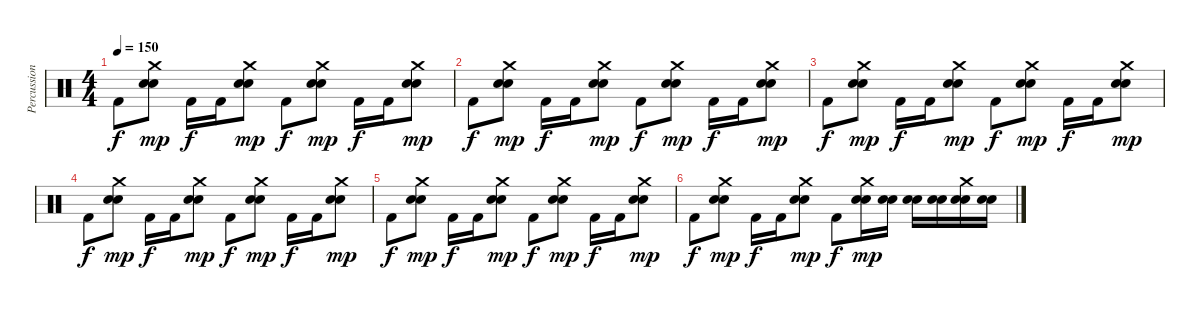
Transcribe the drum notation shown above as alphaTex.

\track ("Percussion" "Percussion") {instrument percussion}
\staff {score}
\articulation defaults
\ts (4 4)
\tempo 150
\clef neutral
\ks c "Kick (hit) 2".8{dy f}
("Crash medium (hit)" "Electric Snare (hit)" "Snare (hit) 2").8{dy mp} "Kick (hit) 2".16{dy f} "Kick (hit) 2".16 ("Crash medium (hit)" "Electric Snare (hit)" "Snare (hit) 2").8{dy mp} "Kick (hit) 2".8{dy f} ("Crash medium (hit)" "Electric Snare (hit)" "Snare (hit) 2").8{dy mp} "Kick (hit) 2".16{dy f} "Kick (hit) 2".16 ("Crash medium (hit)" "Electric Snare (hit)" "Snare (hit) 2").8{dy mp} |
"Kick (hit) 2".8{dy f} ("Crash medium (hit)" "Electric Snare (hit)" "Snare (hit) 2").8{dy mp} "Kick (hit) 2".16{dy f} "Kick (hit) 2".16 ("Crash medium (hit)" "Electric Snare (hit)" "Snare (hit) 2").8{dy mp} "Kick (hit) 2".8{dy f} ("Crash medium (hit)" "Electric Snare (hit)" "Snare (hit) 2").8{dy mp} "Kick (hit) 2".16{dy f} "Kick (hit) 2".16 ("Crash medium (hit)" "Electric Snare (hit)" "Snare (hit) 2").8{dy mp} |
"Kick (hit) 2".8{dy f} ("Crash medium (hit)" "Electric Snare (hit)" "Snare (hit) 2").8{dy mp} "Kick (hit) 2".16{dy f} "Kick (hit) 2".16 ("Crash medium (hit)" "Electric Snare (hit)" "Snare (hit) 2").8{dy mp} "Kick (hit) 2".8{dy f} ("Crash medium (hit)" "Electric Snare (hit)" "Snare (hit) 2").8{dy mp} "Kick (hit) 2".16{dy f} "Kick (hit) 2".16 ("Crash medium (hit)" "Electric Snare (hit)" "Snare (hit) 2").8{dy mp} |
"Kick (hit) 2".8{dy f} ("Crash medium (hit)" "Electric Snare (hit)" "Snare (hit) 2").8{dy mp} "Kick (hit) 2".16{dy f} "Kick (hit) 2".16 ("Crash medium (hit)" "Electric Snare (hit)" "Snare (hit) 2").8{dy mp} "Kick (hit) 2".8{dy f} ("Crash medium (hit)" "Electric Snare (hit)" "Snare (hit) 2").8{dy mp} "Kick (hit) 2".16{dy f} "Kick (hit) 2".16 ("Crash medium (hit)" "Electric Snare (hit)" "Snare (hit) 2").8{dy mp} |
"Kick (hit) 2".8{dy f} ("Crash medium (hit)" "Electric Snare (hit)" "Snare (hit) 2").8{dy mp} "Kick (hit) 2".16{dy f} "Kick (hit) 2".16 ("Crash medium (hit)" "Electric Snare (hit)" "Snare (hit) 2").8{dy mp} "Kick (hit) 2".8{dy f} ("Crash medium (hit)" "Electric Snare (hit)" "Snare (hit) 2").8{dy mp} "Kick (hit) 2".16{dy f} "Kick (hit) 2".16 ("Crash medium (hit)" "Electric Snare (hit)" "Snare (hit) 2").8{dy mp} |
"Kick (hit) 2".8{dy f} ("Crash medium (hit)" "Electric Snare (hit)" "Snare (hit) 2").8{dy mp} "Kick (hit) 2".16{dy f} "Kick (hit) 2".16 ("Crash medium (hit)" "Electric Snare (hit)" "Snare (hit) 2").8{dy mp} "Kick (hit) 2".8{dy f} ("Crash medium (hit)" "Electric Snare (hit)" "Snare (hit) 2").16{dy mp} ("Electric Snare (hit)" "Snare (hit) 2").16 ("Electric Snare (hit)" "Snare (hit) 2").16 ("Electric Snare (hit)" "Snare (hit) 2").16 ("Crash medium (hit)" "Electric Snare (hit)" "Snare (hit) 2").16 ("Electric Snare (hit)" "Snare (hit) 2").16
